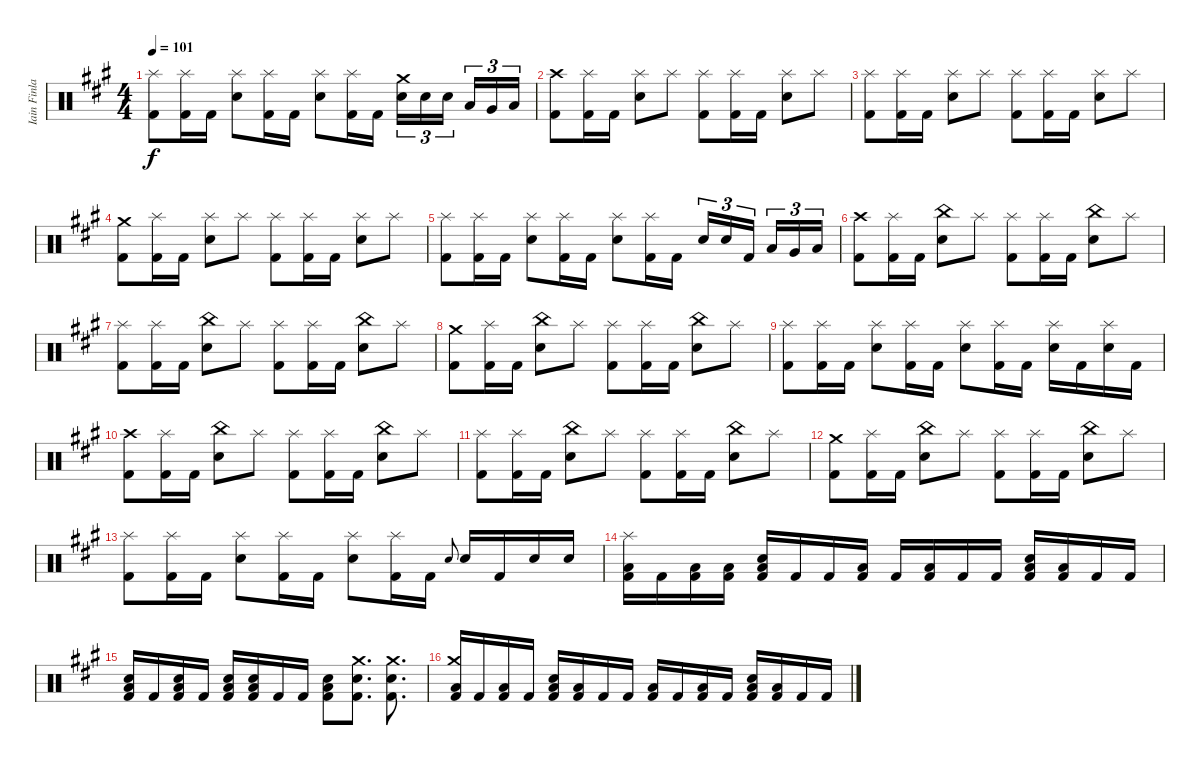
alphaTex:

\track ("Iain Finlay" "Iain Finla") {instrument percussion}
\staff {score}
\articulation defaults
\ts (4 4)
\tempo 101
\clef neutral
\ks f#minor
("Splash (hit)" "Kick (hit) 2").8{dy f} ("Splash (hit)" "Kick (hit) 2").16 "Kick (hit) 2".16 ("Splash (hit)" "Snare (hit) 2").8 ("Splash (hit)" "Kick (hit) 2").16 "Kick (hit) 2".16 ("Splash (hit)" "Snare (hit) 2").8 ("Splash (hit)" "Kick (hit) 2").16 "Kick (hit) 2".16 ("Crash medium (hit)" "Snare (hit) 2").16{tu (3 2)} "Snare (hit) 2".16{tu (3 2)} "Snare (hit) 2".16{tu (3 2) beam splitsecondary} "Low Tom (hit)".16{tu (3 2)} "Very Low Tom (hit)".16{tu (3 2)} "Low Floor Tom (hit)".16{tu (3 2)} |
("Crash high (hit)" "Kick (hit) 2").8 ("Splash (hit)" "Kick (hit) 2").16 "Kick (hit) 2".16 ("Splash (hit)" "Snare (hit) 2").8 "Splash (hit)".8 ("Splash (hit)" "Kick (hit) 2").8 ("Splash (hit)" "Kick (hit) 2").16 "Kick (hit) 2".16 ("Splash (hit)" "Snare (hit) 2").8 "Splash (hit)".8 |
("Splash (hit)" "Kick (hit) 2").8 ("Splash (hit)" "Kick (hit) 2").16 "Kick (hit) 2".16 ("Splash (hit)" "Snare (hit) 2").8 "Splash (hit)".8 ("Splash (hit)" "Kick (hit) 2").8 ("Splash (hit)" "Kick (hit) 2").16 "Kick (hit) 2".16 ("Splash (hit)" "Snare (hit) 2").8 "Splash (hit)".8 |
("Crash medium (hit)" "Kick (hit) 2").8 ("Splash (hit)" "Kick (hit) 2").16 "Kick (hit) 2".16 ("Splash (hit)" "Snare (hit) 2").8 "Splash (hit)".8 ("Splash (hit)" "Kick (hit) 2").8 ("Splash (hit)" "Kick (hit) 2").16 "Kick (hit) 2".16 ("Splash (hit)" "Snare (hit) 2").8 "Splash (hit)".8 |
("Splash (hit)" "Kick (hit) 2").8 ("Splash (hit)" "Kick (hit) 2").16 "Kick (hit) 2".16 ("Splash (hit)" "Snare (hit) 2").8 ("Splash (hit)" "Kick (hit) 2").16 "Kick (hit) 2".16 ("Splash (hit)" "Snare (hit) 2").8 ("Splash (hit)" "Kick (hit) 2").16 "Kick (hit) 2".16 "Snare (hit) 2".16{tu (3 2)} "Snare (hit) 2".16{tu (3 2)} "Kick (hit) 2".16{tu (3 2) beam splitsecondary} "Low Tom (hit)".16{tu (3 2)} "Very Low Tom (hit)".16{tu (3 2)} "Low Floor Tom (hit)".16{tu (3 2)} |
("Crash high (hit)" "Kick (hit) 2").8 ("Splash (hit)" "Kick (hit) 2").16 "Kick (hit) 2".16 ("China (hit)" "Snare (hit) 2").8 "Splash (hit)".8 ("Splash (hit)" "Kick (hit) 2").8 ("Splash (hit)" "Kick (hit) 2").16 "Kick (hit) 2".16 ("China (hit)" "Snare (hit) 2").8 "Splash (hit)".8 |
("Splash (hit)" "Kick (hit) 2").8 ("Splash (hit)" "Kick (hit) 2").16 "Kick (hit) 2".16 ("China (hit)" "Snare (hit) 2").8 "Splash (hit)".8 ("Splash (hit)" "Kick (hit) 2").8 ("Splash (hit)" "Kick (hit) 2").16 "Kick (hit) 2".16 ("China (hit)" "Snare (hit) 2").8 "Splash (hit)".8 |
("Crash medium (hit)" "Kick (hit) 2").8 ("Splash (hit)" "Kick (hit) 2").16 "Kick (hit) 2".16 ("China (hit)" "Snare (hit) 2").8 "Splash (hit)".8 ("Splash (hit)" "Kick (hit) 2").8 ("Splash (hit)" "Kick (hit) 2").16 "Kick (hit) 2".16 ("China (hit)" "Snare (hit) 2").8 "Splash (hit)".8 |
("Splash (hit)" "Kick (hit) 2").8 ("Splash (hit)" "Kick (hit) 2").16 "Kick (hit) 2".16 ("Splash (hit)" "Snare (hit) 2").8 ("Splash (hit)" "Kick (hit) 2").16 "Kick (hit) 2".16 ("Splash (hit)" "Snare (hit) 2").8 ("Splash (hit)" "Kick (hit) 2").16 "Kick (hit) 2".16 ("Splash (hit)" "Snare (hit) 2").16 "Kick (hit) 2".16 ("Splash (hit)" "Snare (hit) 2").16 "Kick (hit) 2".16 |
("Crash high (hit)" "Kick (hit) 2").8 ("Splash (hit)" "Kick (hit) 2").16 "Kick (hit) 2".16 ("China (hit)" "Snare (hit) 2").8 "Splash (hit)".8 ("Splash (hit)" "Kick (hit) 2").8 ("Splash (hit)" "Kick (hit) 2").16 "Kick (hit) 2".16 ("China (hit)" "Snare (hit) 2").8 "Splash (hit)".8 |
("Splash (hit)" "Kick (hit) 2").8 ("Splash (hit)" "Kick (hit) 2").16 "Kick (hit) 2".16 ("China (hit)" "Snare (hit) 2").8 "Splash (hit)".8 ("Splash (hit)" "Kick (hit) 2").8 ("Splash (hit)" "Kick (hit) 2").16 "Kick (hit) 2".16 ("China (hit)" "Snare (hit) 2").8 "Splash (hit)".8 |
("Crash medium (hit)" "Kick (hit) 2").8 ("Splash (hit)" "Kick (hit) 2").16 "Kick (hit) 2".16 ("China (hit)" "Snare (hit) 2").8 "Splash (hit)".8 ("Splash (hit)" "Kick (hit) 2").8 ("Splash (hit)" "Kick (hit) 2").16 "Kick (hit) 2".16 ("China (hit)" "Snare (hit) 2").8 "Splash (hit)".8 |
("Splash (hit)" "Kick (hit) 2").8 ("Splash (hit)" "Kick (hit) 2").16 "Kick (hit) 2".16 ("Splash (hit)" "Snare (hit) 2").8 ("Splash (hit)" "Kick (hit) 2").16 "Kick (hit) 2".16 ("Splash (hit)" "Snare (hit) 2").8 ("Splash (hit)" "Kick (hit) 2").16 "Kick (hit) 2".16 "Snare (hit) 2".8{gr onbeat} "Snare (hit) 2".16 "Kick (hit) 2".16 "Snare (hit) 2".16 "Snare (hit) 2".16 |
("Splash (hit)" "Low Floor Tom (hit)" "Kick (hit) 2").16 "Kick (hit) 2".16 ("Low Floor Tom (hit)" "Kick (hit) 2").16 ("Low Floor Tom (hit)" "Kick (hit) 2").16 ("Snare (hit) 2" "Low Tom (hit)" "Kick (hit) 2").16 "Kick (hit) 2".16 "Kick (hit) 2".16 ("Low Floor Tom (hit)" "Kick (hit) 2").16 "Kick (hit) 2".16 ("Low Floor Tom (hit)" "Kick (hit) 2").16 "Kick (hit) 2".16 "Kick (hit) 2".16 ("Snare (hit) 2" "Low Tom (hit)" "Kick (hit) 2").16 ("Low Tom (hit)" "Kick (hit) 2").16 "Kick (hit) 2".16 "Kick (hit) 2".16 |
("Snare (hit) 2" "Low Floor Tom (hit)" "Kick (hit) 2").16 "Kick (hit) 2".16 ("Snare (hit) 2" "Low Floor Tom (hit)" "Kick (hit) 2").16 "Kick (hit) 2".16 ("Snare (hit) 2" "Low Tom (hit)" "Kick (hit) 2").16 ("Snare (hit) 2" "Low Floor Tom (hit)" "Kick (hit) 2").16 "Kick (hit) 2".16 "Kick (hit) 2".16 ("Snare (hit) 2" "Low Tom (hit)" "Kick (hit) 2").8 ("Crash medium (hit)" "Snare (hit) 2" "Kick (hit) 2").8{d} ("Crash medium (hit)" "Snare (hit) 2" "Kick (hit) 2").8{d} |
("Crash medium (hit)" "Low Floor Tom (hit)" "Kick (hit) 2").16 "Kick (hit) 2".16 ("Low Floor Tom (hit)" "Kick (hit) 2").16 "Kick (hit) 2".16 ("Snare (hit) 2" "Low Tom (hit)" "Kick (hit) 2").16 ("Low Floor Tom (hit)" "Kick (hit) 2").16 "Kick (hit) 2".16 "Kick (hit) 2".16 ("Low Floor Tom (hit)" "Kick (hit) 2").16 "Kick (hit) 2".16 ("Low Floor Tom (hit)" "Kick (hit) 2").16 "Kick (hit) 2".16 ("Snare (hit) 2" "Low Tom (hit)" "Kick (hit) 2").16 ("Low Floor Tom (hit)" "Kick (hit) 2").16 "Kick (hit) 2".16 "Kick (hit) 2".16
